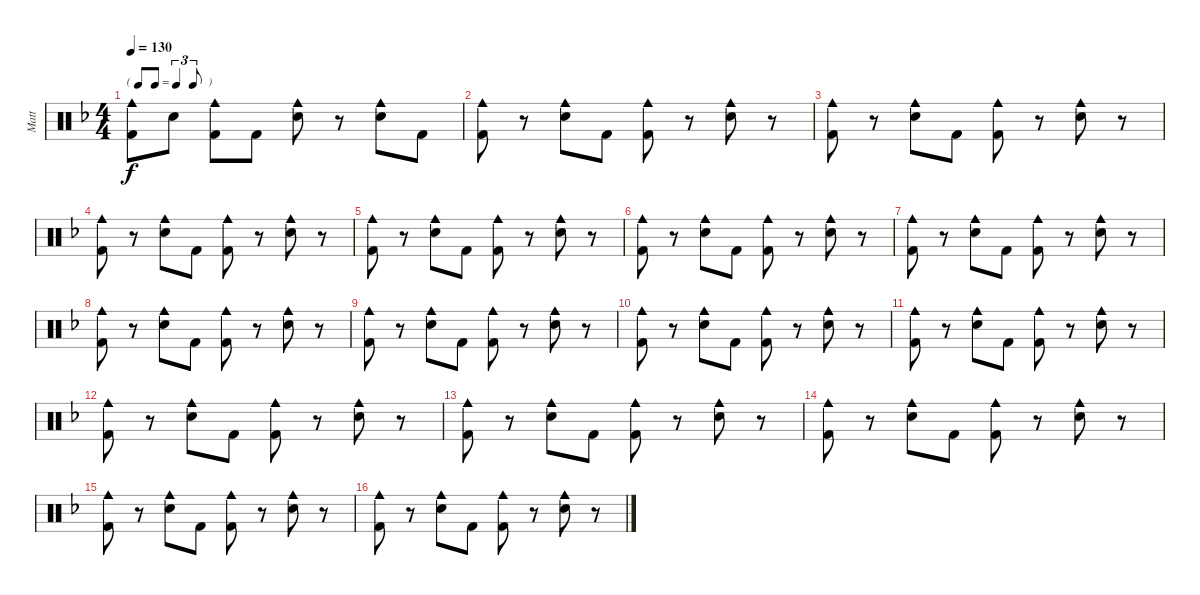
\track ("Matt" "Matt") {instrument percussion}
\staff {score}
\articulation defaults
\ts (4 4)
\tf triplet8th
\tempo 130
\clef neutral
\ks f
("Cowbell medium (hit)" "Kick (hit) 2").8{dy f} "Snare (hit) 2".8 ("Cowbell medium (hit)" "Kick (hit) 2").8 "Kick (hit) 2".8 ("Cowbell medium (hit)" "Snare (hit) 2").8 r.8 ("Cowbell medium (hit)" "Snare (hit) 2").8 "Kick (hit) 2".8 |
("Cowbell medium (hit)" "Kick (hit) 2").8 r.8 ("Cowbell medium (hit)" "Snare (hit) 2").8 "Kick (hit) 2".8 ("Cowbell medium (hit)" "Kick (hit) 2").8 r.8 ("Cowbell medium (hit)" "Snare (hit) 2").8 r.8 |
("Cowbell medium (hit)" "Kick (hit) 2").8 r.8 ("Cowbell medium (hit)" "Snare (hit) 2").8 "Kick (hit) 2".8 ("Cowbell medium (hit)" "Kick (hit) 2").8 r.8 ("Cowbell medium (hit)" "Snare (hit) 2").8 r.8 |
("Cowbell medium (hit)" "Kick (hit) 2").8 r.8 ("Cowbell medium (hit)" "Snare (hit) 2").8 "Kick (hit) 2".8 ("Cowbell medium (hit)" "Kick (hit) 2").8 r.8 ("Cowbell medium (hit)" "Snare (hit) 2").8 r.8 |
("Cowbell medium (hit)" "Kick (hit) 2").8 r.8 ("Cowbell medium (hit)" "Snare (hit) 2").8 "Kick (hit) 2".8 ("Cowbell medium (hit)" "Kick (hit) 2").8 r.8 ("Cowbell medium (hit)" "Snare (hit) 2").8 r.8 |
("Cowbell medium (hit)" "Kick (hit) 2").8 r.8 ("Cowbell medium (hit)" "Snare (hit) 2").8 "Kick (hit) 2".8 ("Cowbell medium (hit)" "Kick (hit) 2").8 r.8 ("Cowbell medium (hit)" "Snare (hit) 2").8 r.8 |
("Cowbell medium (hit)" "Kick (hit) 2").8 r.8 ("Cowbell medium (hit)" "Snare (hit) 2").8 "Kick (hit) 2".8 ("Cowbell medium (hit)" "Kick (hit) 2").8 r.8 ("Cowbell medium (hit)" "Snare (hit) 2").8 r.8 |
("Cowbell medium (hit)" "Kick (hit) 2").8 r.8 ("Cowbell medium (hit)" "Snare (hit) 2").8 "Kick (hit) 2".8 ("Cowbell medium (hit)" "Kick (hit) 2").8 r.8 ("Cowbell medium (hit)" "Snare (hit) 2").8 r.8 |
("Cowbell medium (hit)" "Kick (hit) 2").8 r.8 ("Cowbell medium (hit)" "Snare (hit) 2").8 "Kick (hit) 2".8 ("Cowbell medium (hit)" "Kick (hit) 2").8 r.8 ("Cowbell medium (hit)" "Snare (hit) 2").8 r.8 |
("Cowbell medium (hit)" "Kick (hit) 2").8 r.8 ("Cowbell medium (hit)" "Snare (hit) 2").8 "Kick (hit) 2".8 ("Cowbell medium (hit)" "Kick (hit) 2").8 r.8 ("Cowbell medium (hit)" "Snare (hit) 2").8 r.8 |
("Cowbell medium (hit)" "Kick (hit) 2").8 r.8 ("Cowbell medium (hit)" "Snare (hit) 2").8 "Kick (hit) 2".8 ("Cowbell medium (hit)" "Kick (hit) 2").8 r.8 ("Cowbell medium (hit)" "Snare (hit) 2").8 r.8 |
("Cowbell medium (hit)" "Kick (hit) 2").8 r.8 ("Cowbell medium (hit)" "Snare (hit) 2").8 "Kick (hit) 2".8 ("Cowbell medium (hit)" "Kick (hit) 2").8 r.8 ("Cowbell medium (hit)" "Snare (hit) 2").8 r.8 |
("Cowbell medium (hit)" "Kick (hit) 2").8 r.8 ("Cowbell medium (hit)" "Snare (hit) 2").8 "Kick (hit) 2".8 ("Cowbell medium (hit)" "Kick (hit) 2").8 r.8 ("Cowbell medium (hit)" "Snare (hit) 2").8 r.8 |
("Cowbell medium (hit)" "Kick (hit) 2").8 r.8 ("Cowbell medium (hit)" "Snare (hit) 2").8 "Kick (hit) 2".8 ("Cowbell medium (hit)" "Kick (hit) 2").8 r.8 ("Cowbell medium (hit)" "Snare (hit) 2").8 r.8 |
("Cowbell medium (hit)" "Kick (hit) 2").8 r.8 ("Cowbell medium (hit)" "Snare (hit) 2").8 "Kick (hit) 2".8 ("Cowbell medium (hit)" "Kick (hit) 2").8 r.8 ("Cowbell medium (hit)" "Snare (hit) 2").8 r.8 |
("Cowbell medium (hit)" "Kick (hit) 2").8 r.8 ("Cowbell medium (hit)" "Snare (hit) 2").8 "Kick (hit) 2".8 ("Cowbell medium (hit)" "Kick (hit) 2").8 r.8 ("Cowbell medium (hit)" "Snare (hit) 2").8 r.8
